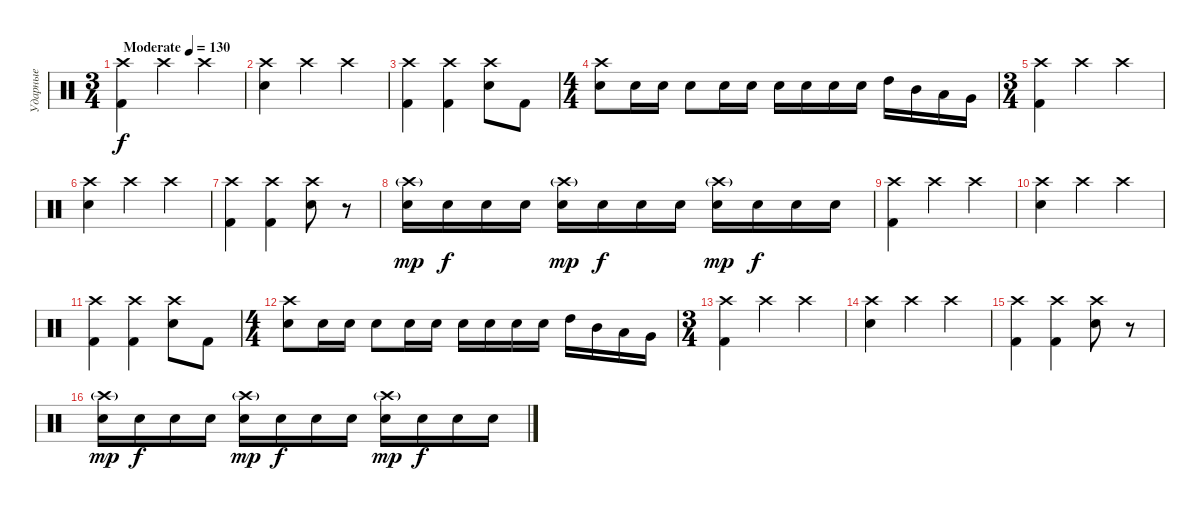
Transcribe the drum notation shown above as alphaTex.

\track ("Ударные" "Ударные") {instrument percussion}
\staff {score}
\articulation defaults
\ts (3 4)
\tempo (130 "Moderate")
\clef neutral
\ks c
("Crash high (hit)" "Kick (hit) 2").4{dy f} "Crash high (hit)".4 "Crash high (hit)".4 |
("Crash high (hit)" "Electric Snare (hit)").4 "Crash high (hit)".4 "Crash high (hit)".4 |
("Crash high (hit)" "Kick (hit) 2").4 ("Crash high (hit)" "Kick (hit) 2").4 ("Crash high (hit)" "Electric Snare (hit)").8 "Kick (hit) 2".8 |
\ts (4 4)
("Crash high (hit)" "Electric Snare (hit)").8 "Electric Snare (hit)".16 "Electric Snare (hit)".16 "Electric Snare (hit)".8 "Electric Snare (hit)".16 "Electric Snare (hit)".16 "Electric Snare (hit)".16 "Electric Snare (hit)".16 "Electric Snare (hit)".16 "Electric Snare (hit)".16 "High Tom (hit)".16 "Mid Tom (hit)".16 "Low Tom (hit)".16 "Very Low Tom (hit)".16 |
\ts (3 4)
("Crash high (hit)" "Kick (hit) 2").4 "Crash high (hit)".4 "Crash high (hit)".4 |
("Crash high (hit)" "Electric Snare (hit)").4 "Crash high (hit)".4 "Crash high (hit)".4 |
("Crash high (hit)" "Kick (hit) 2").4 ("Crash high (hit)" "Kick (hit) 2").4 ("Crash high (hit)" "Electric Snare (hit)").8 r.8 |
("Crash high (hit)"{g} "Electric Snare (hit)").16{dy mp} "Electric Snare (hit)".16{dy f} "Electric Snare (hit)".16 "Electric Snare (hit)".16 ("Crash high (hit)"{g} "Electric Snare (hit)").16{dy mp} "Electric Snare (hit)".16{dy f} "Electric Snare (hit)".16 "Electric Snare (hit)".16 ("Crash high (hit)"{g} "Electric Snare (hit)").16{dy mp} "Electric Snare (hit)".16{dy f} "Electric Snare (hit)".16 "Electric Snare (hit)".16 |
("Crash high (hit)" "Kick (hit) 2").4 "Crash high (hit)".4 "Crash high (hit)".4 |
("Crash high (hit)" "Electric Snare (hit)").4 "Crash high (hit)".4 "Crash high (hit)".4 |
("Crash high (hit)" "Kick (hit) 2").4 ("Crash high (hit)" "Kick (hit) 2").4 ("Crash high (hit)" "Electric Snare (hit)").8 "Kick (hit) 2".8 |
\ts (4 4)
("Crash high (hit)" "Electric Snare (hit)").8 "Electric Snare (hit)".16 "Electric Snare (hit)".16 "Electric Snare (hit)".8 "Electric Snare (hit)".16 "Electric Snare (hit)".16 "Electric Snare (hit)".16 "Electric Snare (hit)".16 "Electric Snare (hit)".16 "Electric Snare (hit)".16 "High Tom (hit)".16 "Mid Tom (hit)".16 "Low Tom (hit)".16 "Very Low Tom (hit)".16 |
\ts (3 4)
("Crash high (hit)" "Kick (hit) 2").4 "Crash high (hit)".4 "Crash high (hit)".4 |
("Crash high (hit)" "Electric Snare (hit)").4 "Crash high (hit)".4 "Crash high (hit)".4 |
("Crash high (hit)" "Kick (hit) 2").4 ("Crash high (hit)" "Kick (hit) 2").4 ("Crash high (hit)" "Electric Snare (hit)").8 r.8 |
("Crash high (hit)"{g} "Electric Snare (hit)").16{dy mp} "Electric Snare (hit)".16{dy f} "Electric Snare (hit)".16 "Electric Snare (hit)".16 ("Crash high (hit)"{g} "Electric Snare (hit)").16{dy mp} "Electric Snare (hit)".16{dy f} "Electric Snare (hit)".16 "Electric Snare (hit)".16 ("Crash high (hit)"{g} "Electric Snare (hit)").16{dy mp} "Electric Snare (hit)".16{dy f} "Electric Snare (hit)".16 "Electric Snare (hit)".16
